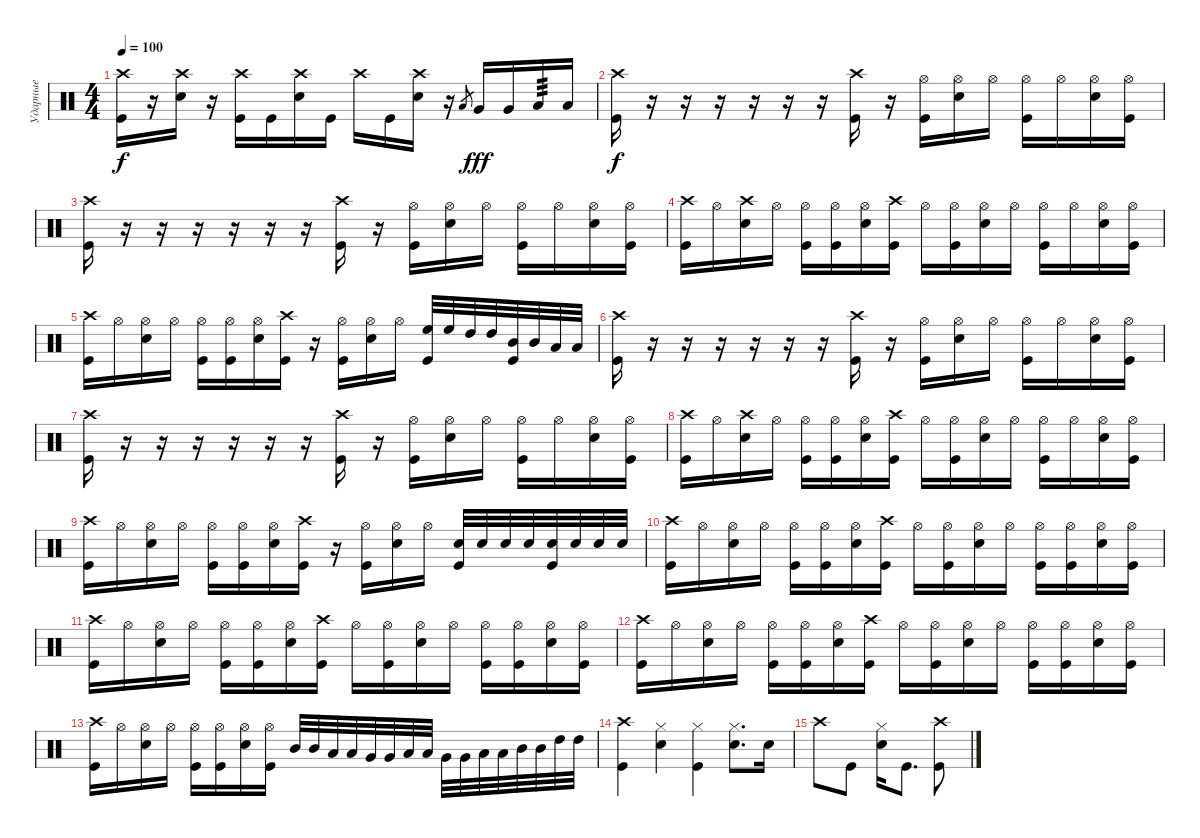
\track ("Ударные" "Ударные") {instrument percussion}
\staff {score}
\articulation defaults
\ts (4 4)
\tempo 100
\clef neutral
\ks c
("Crash high (hit)" "Kick (hit)").16{dy f} r.16 ("Crash high (hit)" "Snare (hit) 2").16 r.16 ("Crash high (hit)" "Kick (hit)").16 "Kick (hit)".16 ("Crash high (hit)" "Snare (hit) 2").16 "Kick (hit)".16 "Crash high (hit)".16 "Kick (hit)".16 ("Crash high (hit)" "Snare (hit) 2").16 r.16 "Low Tom (hit)".8{gr} "Very Low Tom (hit)".16{dy fff} "Very Low Tom (hit)".16 "Low Floor Tom (hit)".16{tp 3} "Low Floor Tom (hit)".16 |
("Crash high (hit)" "Kick (hit)").16{dy f} r.16 r.16 r.16 r.16 r.16 r.16 ("Crash high (hit)" "Kick (hit)").16 r.16 ("Hi-Hat (open)" "Kick (hit)").16 ("Hi-Hat (open)" "Snare (hit) 2").16 "Hi-Hat (open)".16 ("Hi-Hat (open)" "Kick (hit)").16 "Hi-Hat (open)".16 ("Hi-Hat (open)" "Snare (hit) 2").16 ("Hi-Hat (open)" "Kick (hit)").16 |
("Crash high (hit)" "Kick (hit)").16 r.16 r.16 r.16 r.16 r.16 r.16 ("Crash high (hit)" "Kick (hit)").16 r.16 ("Hi-Hat (open)" "Kick (hit)").16 ("Hi-Hat (open)" "Snare (hit) 2").16 "Hi-Hat (open)".16 ("Hi-Hat (open)" "Kick (hit)").16 "Hi-Hat (open)".16 ("Hi-Hat (open)" "Snare (hit) 2").16 ("Hi-Hat (open)" "Kick (hit)").16 |
("Crash high (hit)" "Kick (hit)").16 "Hi-Hat (open)".16 ("Crash high (hit)" "Snare (hit) 2").16 "Hi-Hat (open)".16 ("Hi-Hat (open)" "Kick (hit)").16 ("Hi-Hat (open)" "Kick (hit)").16 ("Hi-Hat (open)" "Snare (hit) 2").16 ("Crash high (hit)" "Kick (hit)").16 "Hi-Hat (open)".16 ("Hi-Hat (open)" "Kick (hit)").16 ("Hi-Hat (open)" "Snare (hit) 2").16 "Hi-Hat (open)".16 ("Hi-Hat (open)" "Kick (hit)").16 "Hi-Hat (open)".16 ("Hi-Hat (open)" "Snare (hit) 2").16 ("Hi-Hat (open)" "Kick (hit)").16 |
("Crash high (hit)" "Kick (hit)").16 "Hi-Hat (open)".16 ("Hi-Hat (open)" "Snare (hit) 2").16 "Hi-Hat (open)".16 ("Hi-Hat (open)" "Kick (hit)").16 ("Hi-Hat (open)" "Kick (hit)").16 ("Hi-Hat (open)" "Snare (hit) 2").16 ("Crash high (hit)" "Kick (hit)").16 r.16 ("Hi-Hat (open)" "Kick (hit)").16 ("Hi-Hat (open)" "Snare (hit) 2").16 "Hi-Hat (open)".16 ("High Floor Tom (hit)" "Kick (hit)").32 "High Floor Tom (hit)".32 "High Tom (hit)".32 "High Tom (hit)".32 ("Mid Tom (hit)" "Kick (hit)").32 "Mid Tom (hit)".32 "Low Tom (hit)".32 "Low Tom (hit)".32 |
("Crash high (hit)" "Kick (hit)").16 r.16 r.16 r.16 r.16 r.16 r.16 ("Crash high (hit)" "Kick (hit)").16 r.16 ("Hi-Hat (open)" "Kick (hit)").16 ("Hi-Hat (open)" "Snare (hit) 2").16 "Hi-Hat (open)".16 ("Hi-Hat (open)" "Kick (hit)").16 "Hi-Hat (open)".16 ("Hi-Hat (open)" "Snare (hit) 2").16 ("Hi-Hat (open)" "Kick (hit)").16 |
("Crash high (hit)" "Kick (hit)").16 r.16 r.16 r.16 r.16 r.16 r.16 ("Crash high (hit)" "Kick (hit)").16 r.16 ("Hi-Hat (open)" "Kick (hit)").16 ("Hi-Hat (open)" "Snare (hit) 2").16 "Hi-Hat (open)".16 ("Hi-Hat (open)" "Kick (hit)").16 "Hi-Hat (open)".16 ("Hi-Hat (open)" "Snare (hit) 2").16 ("Hi-Hat (open)" "Kick (hit)").16 |
("Crash high (hit)" "Kick (hit)").16 "Hi-Hat (open)".16 ("Crash high (hit)" "Snare (hit) 2").16 "Hi-Hat (open)".16 ("Hi-Hat (open)" "Kick (hit)").16 ("Hi-Hat (open)" "Kick (hit)").16 ("Hi-Hat (open)" "Snare (hit) 2").16 ("Crash high (hit)" "Kick (hit)").16 "Hi-Hat (open)".16 ("Hi-Hat (open)" "Kick (hit)").16 ("Hi-Hat (open)" "Snare (hit) 2").16 "Hi-Hat (open)".16 ("Hi-Hat (open)" "Kick (hit)").16 "Hi-Hat (open)".16 ("Hi-Hat (open)" "Snare (hit) 2").16 ("Hi-Hat (open)" "Kick (hit)").16 |
("Crash high (hit)" "Kick (hit)").16 "Hi-Hat (open)".16 ("Hi-Hat (open)" "Snare (hit) 2").16 "Hi-Hat (open)".16 ("Hi-Hat (open)" "Kick (hit)").16 ("Hi-Hat (open)" "Kick (hit)").16 ("Hi-Hat (open)" "Snare (hit) 2").16 ("Crash high (hit)" "Kick (hit)").16 r.16 ("Hi-Hat (open)" "Kick (hit)").16 ("Hi-Hat (open)" "Snare (hit) 2").16 "Hi-Hat (open)".16 ("Snare (hit) 2" "Kick (hit)").32 "Snare (hit) 2".32 "Snare (hit) 2".32 "Snare (hit) 2".32 ("Snare (hit) 2" "Kick (hit)").32 "Snare (hit) 2".32 "Snare (hit) 2".32 "Snare (hit) 2".32 |
("Crash high (hit)" "Kick (hit)").16 "Hi-Hat (open)".16 ("Hi-Hat (open)" "Snare (hit) 2").16 "Hi-Hat (open)".16 ("Hi-Hat (open)" "Kick (hit)").16 ("Hi-Hat (open)" "Kick (hit)").16 ("Hi-Hat (open)" "Snare (hit) 2").16 ("Crash high (hit)" "Kick (hit)").16 "Hi-Hat (open)".16 ("Hi-Hat (open)" "Kick (hit)").16 ("Hi-Hat (open)" "Snare (hit) 2").16 "Hi-Hat (open)".16 ("Hi-Hat (open)" "Kick (hit)").16 ("Hi-Hat (open)" "Kick (hit)").16 ("Hi-Hat (open)" "Snare (hit) 2").16 ("Hi-Hat (open)" "Kick (hit)").16 |
("Crash high (hit)" "Kick (hit)").16 "Hi-Hat (open)".16 ("Hi-Hat (open)" "Snare (hit) 2").16 "Hi-Hat (open)".16 ("Hi-Hat (open)" "Kick (hit)").16 ("Hi-Hat (open)" "Kick (hit)").16 ("Hi-Hat (open)" "Snare (hit) 2").16 ("Crash high (hit)" "Kick (hit)").16 "Hi-Hat (open)".16 ("Hi-Hat (open)" "Kick (hit)").16 ("Hi-Hat (open)" "Snare (hit) 2").16 "Hi-Hat (open)".16 ("Hi-Hat (open)" "Kick (hit)").16 ("Hi-Hat (open)" "Kick (hit)").16 ("Hi-Hat (open)" "Snare (hit) 2").16 ("Hi-Hat (open)" "Kick (hit)").16 |
("Crash high (hit)" "Kick (hit)").16 "Hi-Hat (open)".16 ("Hi-Hat (open)" "Snare (hit) 2").16 "Hi-Hat (open)".16 ("Hi-Hat (open)" "Kick (hit)").16 ("Hi-Hat (open)" "Kick (hit)").16 ("Hi-Hat (open)" "Snare (hit) 2").16 ("Crash high (hit)" "Kick (hit)").16 "Hi-Hat (open)".16 ("Hi-Hat (open)" "Kick (hit)").16 ("Hi-Hat (open)" "Snare (hit) 2").16 "Hi-Hat (open)".16 ("Hi-Hat (open)" "Kick (hit)").16 ("Hi-Hat (open)" "Kick (hit)").16 ("Hi-Hat (open)" "Snare (hit) 2").16 ("Hi-Hat (open)" "Kick (hit)").16 |
("Crash high (hit)" "Kick (hit)").16 "Hi-Hat (open)".16 ("Hi-Hat (open)" "Snare (hit) 2").16 "Hi-Hat (open)".16 ("Hi-Hat (open)" "Kick (hit)").16 ("Hi-Hat (open)" "Kick (hit)").16 ("Hi-Hat (open)" "Snare (hit) 2").16 ("Hi-Hat (open)" "Kick (hit)").16 "Mid Tom (hit)".32 "Mid Tom (hit)".32 "Low Tom (hit)".32 "Low Tom (hit)".32 "Very Low Tom (hit)".32 "Very Low Tom (hit)".32 "Low Floor Tom (hit)".32 "Low Floor Tom (hit)".32 "Very Low Tom (hit)".32 "Very Low Tom (hit)".32 "Low Tom (hit)".32 "Low Tom (hit)".32 "Mid Tom (hit)".32 "Mid Tom (hit)".32 "High Tom (hit)".32 "High Tom (hit)".32 |
("Crash high (hit)" "Kick (hit)").4 ("Hi-Hat (closed)" "Electric Snare (hit)").4 ("Hi-Hat (closed)" "Kick (hit)").4 ("Hi-Hat (closed)" "Electric Snare (hit)").8{d} "Electric Snare (hit)".16 |
"Crash high (hit)".8 "Kick (hit)".8 ("Hi-Hat (closed)" "Electric Snare (hit)").16 "Kick (hit)".8{d} ("Crash high (hit)" "Kick (hit)").8
